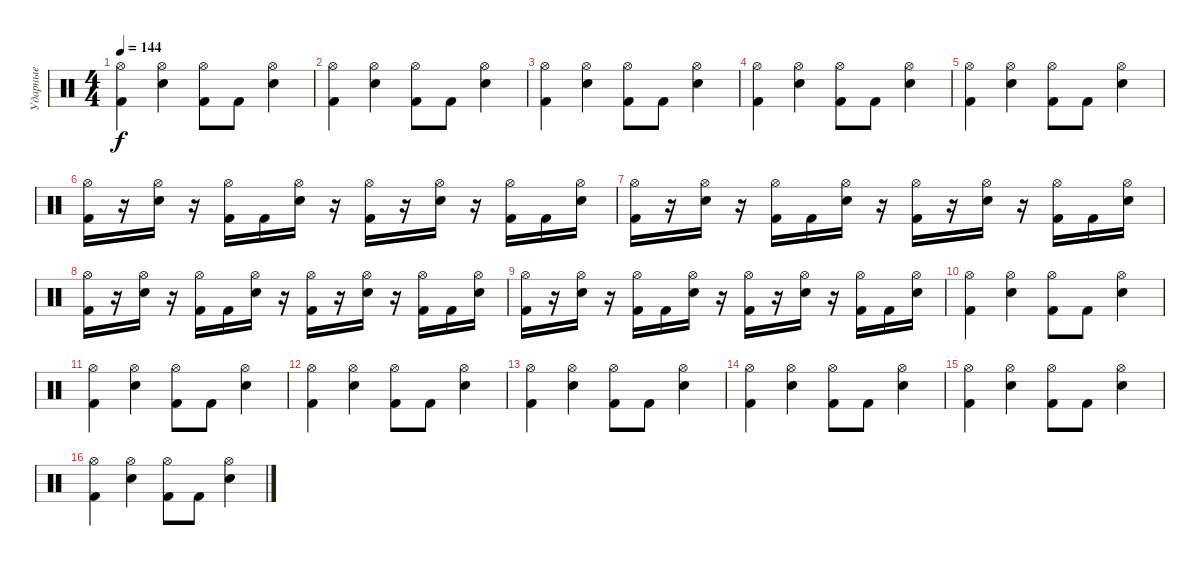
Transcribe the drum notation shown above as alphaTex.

\track ("Ударные" "Ударные") {instrument percussion}
\staff {score}
\articulation defaults
\ts (4 4)
\tempo 144
\clef neutral
\ks c
("Hi-Hat (open)" "Kick (hit) 2").4{dy f} ("Hi-Hat (open)" "Snare (hit) 2").4 ("Hi-Hat (open)" "Kick (hit) 2").8 "Kick (hit) 2".8 ("Hi-Hat (open)" "Snare (hit) 2").4 |
("Hi-Hat (open)" "Kick (hit) 2").4 ("Hi-Hat (open)" "Snare (hit) 2").4 ("Hi-Hat (open)" "Kick (hit) 2").8 "Kick (hit) 2".8 ("Hi-Hat (open)" "Snare (hit) 2").4 |
("Hi-Hat (open)" "Kick (hit) 2").4 ("Hi-Hat (open)" "Snare (hit) 2").4 ("Hi-Hat (open)" "Kick (hit) 2").8 "Kick (hit) 2".8 ("Hi-Hat (open)" "Snare (hit) 2").4 |
("Hi-Hat (open)" "Kick (hit) 2").4 ("Hi-Hat (open)" "Snare (hit) 2").4 ("Hi-Hat (open)" "Kick (hit) 2").8 "Kick (hit) 2".8 ("Hi-Hat (open)" "Snare (hit) 2").4 |
("Hi-Hat (open)" "Kick (hit) 2").4 ("Hi-Hat (open)" "Snare (hit) 2").4 ("Hi-Hat (open)" "Kick (hit) 2").8 "Kick (hit) 2".8 ("Hi-Hat (open)" "Snare (hit) 2").4 |
("Hi-Hat (open)" "Kick (hit) 2").16 r.16 ("Hi-Hat (open)" "Electric Snare (hit)").16 r.16 ("Hi-Hat (open)" "Kick (hit) 2").16 "Kick (hit) 2".16 ("Hi-Hat (open)" "Electric Snare (hit)").16 r.16 ("Hi-Hat (open)" "Kick (hit) 2").16 r.16 ("Hi-Hat (open)" "Electric Snare (hit)").16 r.16 ("Hi-Hat (open)" "Kick (hit) 2").16 "Kick (hit) 2".16 ("Hi-Hat (open)" "Electric Snare (hit)").16 |
("Hi-Hat (open)" "Kick (hit) 2").16 r.16 ("Hi-Hat (open)" "Electric Snare (hit)").16 r.16 ("Hi-Hat (open)" "Kick (hit) 2").16 "Kick (hit) 2".16 ("Hi-Hat (open)" "Electric Snare (hit)").16 r.16 ("Hi-Hat (open)" "Kick (hit) 2").16 r.16 ("Hi-Hat (open)" "Electric Snare (hit)").16 r.16 ("Hi-Hat (open)" "Kick (hit) 2").16 "Kick (hit) 2".16 ("Hi-Hat (open)" "Electric Snare (hit)").16 |
("Hi-Hat (open)" "Kick (hit) 2").16 r.16 ("Hi-Hat (open)" "Electric Snare (hit)").16 r.16 ("Hi-Hat (open)" "Kick (hit) 2").16 "Kick (hit) 2".16 ("Hi-Hat (open)" "Electric Snare (hit)").16 r.16 ("Hi-Hat (open)" "Kick (hit) 2").16 r.16 ("Hi-Hat (open)" "Electric Snare (hit)").16 r.16 ("Hi-Hat (open)" "Kick (hit) 2").16 "Kick (hit) 2".16 ("Hi-Hat (open)" "Electric Snare (hit)").16 |
("Hi-Hat (open)" "Kick (hit) 2").16 r.16 ("Hi-Hat (open)" "Electric Snare (hit)").16 r.16 ("Hi-Hat (open)" "Kick (hit) 2").16 "Kick (hit) 2".16 ("Hi-Hat (open)" "Electric Snare (hit)").16 r.16 ("Hi-Hat (open)" "Kick (hit) 2").16 r.16 ("Hi-Hat (open)" "Electric Snare (hit)").16 r.16 ("Hi-Hat (open)" "Kick (hit) 2").16 "Kick (hit) 2".16 ("Hi-Hat (open)" "Electric Snare (hit)").16 |
("Hi-Hat (open)" "Kick (hit) 2").4 ("Hi-Hat (open)" "Snare (hit) 2").4 ("Hi-Hat (open)" "Kick (hit) 2").8 "Kick (hit) 2".8 ("Hi-Hat (open)" "Snare (hit) 2").4 |
("Hi-Hat (open)" "Kick (hit) 2").4 ("Hi-Hat (open)" "Snare (hit) 2").4 ("Hi-Hat (open)" "Kick (hit) 2").8 "Kick (hit) 2".8 ("Hi-Hat (open)" "Snare (hit) 2").4 |
("Hi-Hat (open)" "Kick (hit) 2").4 ("Hi-Hat (open)" "Snare (hit) 2").4 ("Hi-Hat (open)" "Kick (hit) 2").8 "Kick (hit) 2".8 ("Hi-Hat (open)" "Snare (hit) 2").4 |
("Hi-Hat (open)" "Kick (hit) 2").4 ("Hi-Hat (open)" "Snare (hit) 2").4 ("Hi-Hat (open)" "Kick (hit) 2").8 "Kick (hit) 2".8 ("Hi-Hat (open)" "Snare (hit) 2").4 |
("Hi-Hat (open)" "Kick (hit) 2").4 ("Hi-Hat (open)" "Snare (hit) 2").4 ("Hi-Hat (open)" "Kick (hit) 2").8 "Kick (hit) 2".8 ("Hi-Hat (open)" "Snare (hit) 2").4 |
("Hi-Hat (open)" "Kick (hit) 2").4 ("Hi-Hat (open)" "Snare (hit) 2").4 ("Hi-Hat (open)" "Kick (hit) 2").8 "Kick (hit) 2".8 ("Hi-Hat (open)" "Snare (hit) 2").4 |
("Hi-Hat (open)" "Kick (hit) 2").4 ("Hi-Hat (open)" "Snare (hit) 2").4 ("Hi-Hat (open)" "Kick (hit) 2").8 "Kick (hit) 2".8 ("Hi-Hat (open)" "Snare (hit) 2").4
